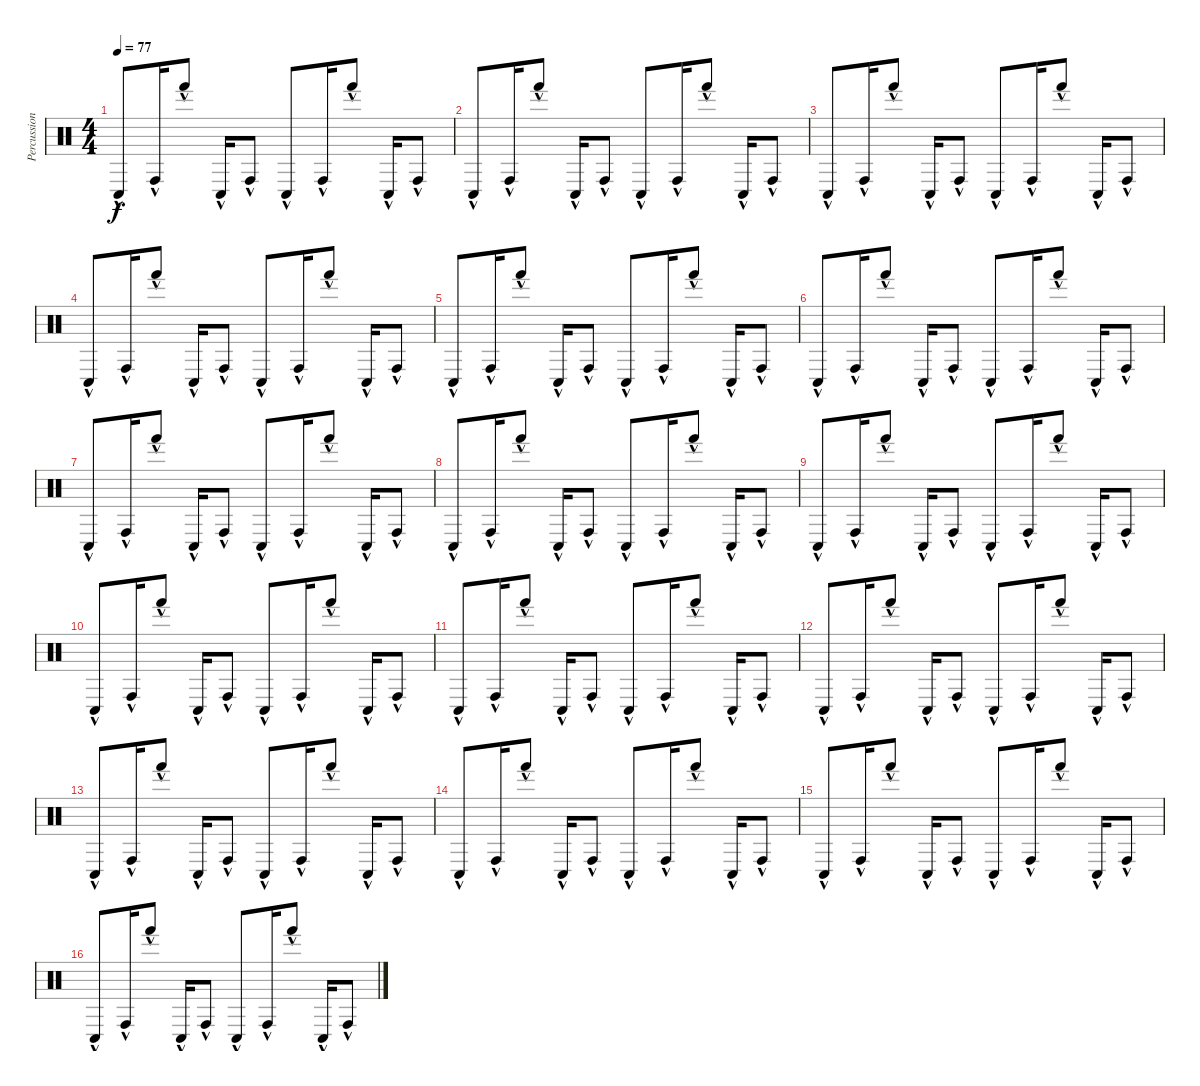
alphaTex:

\track ("Percussion" "Percussion") {instrument percussion}
\staff {score}
\articulation defaults
\ts (4 4)
\tempo 77
\clef neutral
\ks c "Conga low (hit)"{hac}.8{dy f} "Conga high (hit)"{hac}.16 "Hand (hit)"{hac}.8 "Conga low (hit)"{hac}.16 "Conga high (hit)"{hac}.8 "Conga low (hit)"{hac}.8 "Conga high (hit)"{hac}.16 "Hand (hit)"{hac}.8 "Conga low (hit)"{hac}.16 "Conga high (hit)"{hac}.8
|
"Conga low (hit)"{hac}.8 "Conga high (hit)"{hac}.16 "Hand (hit)"{hac}.8 "Conga low (hit)"{hac}.16 "Conga high (hit)"{hac}.8 "Conga low (hit)"{hac}.8 "Conga high (hit)"{hac}.16 "Hand (hit)"{hac}.8 "Conga low (hit)"{hac}.16 "Conga high (hit)"{hac}.8 |
"Conga low (hit)"{hac}.8 "Conga high (hit)"{hac}.16 "Hand (hit)"{hac}.8 "Conga low (hit)"{hac}.16 "Conga high (hit)"{hac}.8 "Conga low (hit)"{hac}.8 "Conga high (hit)"{hac}.16 "Hand (hit)"{hac}.8 "Conga low (hit)"{hac}.16 "Conga high (hit)"{hac}.8 |
"Conga low (hit)"{hac}.8 "Conga high (hit)"{hac}.16 "Hand (hit)"{hac}.8 "Conga low (hit)"{hac}.16 "Conga high (hit)"{hac}.8 "Conga low (hit)"{hac}.8 "Conga high (hit)"{hac}.16 "Hand (hit)"{hac}.8 "Conga low (hit)"{hac}.16 "Conga high (hit)"{hac}.8 |
"Conga low (hit)"{hac}.8 "Conga high (hit)"{hac}.16 "Hand (hit)"{hac}.8 "Conga low (hit)"{hac}.16 "Conga high (hit)"{hac}.8 "Conga low (hit)"{hac}.8 "Conga high (hit)"{hac}.16 "Hand (hit)"{hac}.8 "Conga low (hit)"{hac}.16 "Conga high (hit)"{hac}.8 |
"Conga low (hit)"{hac}.8 "Conga high (hit)"{hac}.16 "Hand (hit)"{hac}.8 "Conga low (hit)"{hac}.16 "Conga high (hit)"{hac}.8 "Conga low (hit)"{hac}.8 "Conga high (hit)"{hac}.16 "Hand (hit)"{hac}.8 "Conga low (hit)"{hac}.16 "Conga high (hit)"{hac}.8 |
"Conga low (hit)"{hac}.8 "Conga high (hit)"{hac}.16 "Hand (hit)"{hac}.8 "Conga low (hit)"{hac}.16 "Conga high (hit)"{hac}.8 "Conga low (hit)"{hac}.8 "Conga high (hit)"{hac}.16 "Hand (hit)"{hac}.8 "Conga low (hit)"{hac}.16 "Conga high (hit)"{hac}.8 |
"Conga low (hit)"{hac}.8 "Conga high (hit)"{hac}.16 "Hand (hit)"{hac}.8 "Conga low (hit)"{hac}.16 "Conga high (hit)"{hac}.8 "Conga low (hit)"{hac}.8 "Conga high (hit)"{hac}.16 "Hand (hit)"{hac}.8 "Conga low (hit)"{hac}.16 "Conga high (hit)"{hac}.8 |
"Conga low (hit)"{hac}.8 "Conga high (hit)"{hac}.16 "Hand (hit)"{hac}.8 "Conga low (hit)"{hac}.16 "Conga high (hit)"{hac}.8 "Conga low (hit)"{hac}.8 "Conga high (hit)"{hac}.16 "Hand (hit)"{hac}.8 "Conga low (hit)"{hac}.16 "Conga high (hit)"{hac}.8 |
"Conga low (hit)"{hac}.8 "Conga high (hit)"{hac}.16 "Hand (hit)"{hac}.8 "Conga low (hit)"{hac}.16 "Conga high (hit)"{hac}.8 "Conga low (hit)"{hac}.8 "Conga high (hit)"{hac}.16 "Hand (hit)"{hac}.8 "Conga low (hit)"{hac}.16 "Conga high (hit)"{hac}.8 |
"Conga low (hit)"{hac}.8 "Conga high (hit)"{hac}.16 "Hand (hit)"{hac}.8 "Conga low (hit)"{hac}.16 "Conga high (hit)"{hac}.8 "Conga low (hit)"{hac}.8 "Conga high (hit)"{hac}.16 "Hand (hit)"{hac}.8 "Conga low (hit)"{hac}.16 "Conga high (hit)"{hac}.8 |
"Conga low (hit)"{hac}.8 "Conga high (hit)"{hac}.16 "Hand (hit)"{hac}.8 "Conga low (hit)"{hac}.16 "Conga high (hit)"{hac}.8 "Conga low (hit)"{hac}.8 "Conga high (hit)"{hac}.16 "Hand (hit)"{hac}.8 "Conga low (hit)"{hac}.16 "Conga high (hit)"{hac}.8 |
"Conga low (hit)"{hac}.8 "Conga high (hit)"{hac}.16 "Hand (hit)"{hac}.8 "Conga low (hit)"{hac}.16 "Conga high (hit)"{hac}.8 "Conga low (hit)"{hac}.8 "Conga high (hit)"{hac}.16 "Hand (hit)"{hac}.8 "Conga low (hit)"{hac}.16 "Conga high (hit)"{hac}.8 |
"Conga low (hit)"{hac}.8 "Conga high (hit)"{hac}.16 "Hand (hit)"{hac}.8 "Conga low (hit)"{hac}.16 "Conga high (hit)"{hac}.8 "Conga low (hit)"{hac}.8 "Conga high (hit)"{hac}.16 "Hand (hit)"{hac}.8 "Conga low (hit)"{hac}.16 "Conga high (hit)"{hac}.8 |
"Conga low (hit)"{hac}.8 "Conga high (hit)"{hac}.16 "Hand (hit)"{hac}.8 "Conga low (hit)"{hac}.16 "Conga high (hit)"{hac}.8 "Conga low (hit)"{hac}.8 "Conga high (hit)"{hac}.16 "Hand (hit)"{hac}.8 "Conga low (hit)"{hac}.16 "Conga high (hit)"{hac}.8 |
"Conga low (hit)"{hac}.8 "Conga high (hit)"{hac}.16 "Hand (hit)"{hac}.8 "Conga low (hit)"{hac}.16 "Conga high (hit)"{hac}.8 "Conga low (hit)"{hac}.8 "Conga high (hit)"{hac}.16 "Hand (hit)"{hac}.8 "Conga low (hit)"{hac}.16 "Conga high (hit)"{hac}.8
